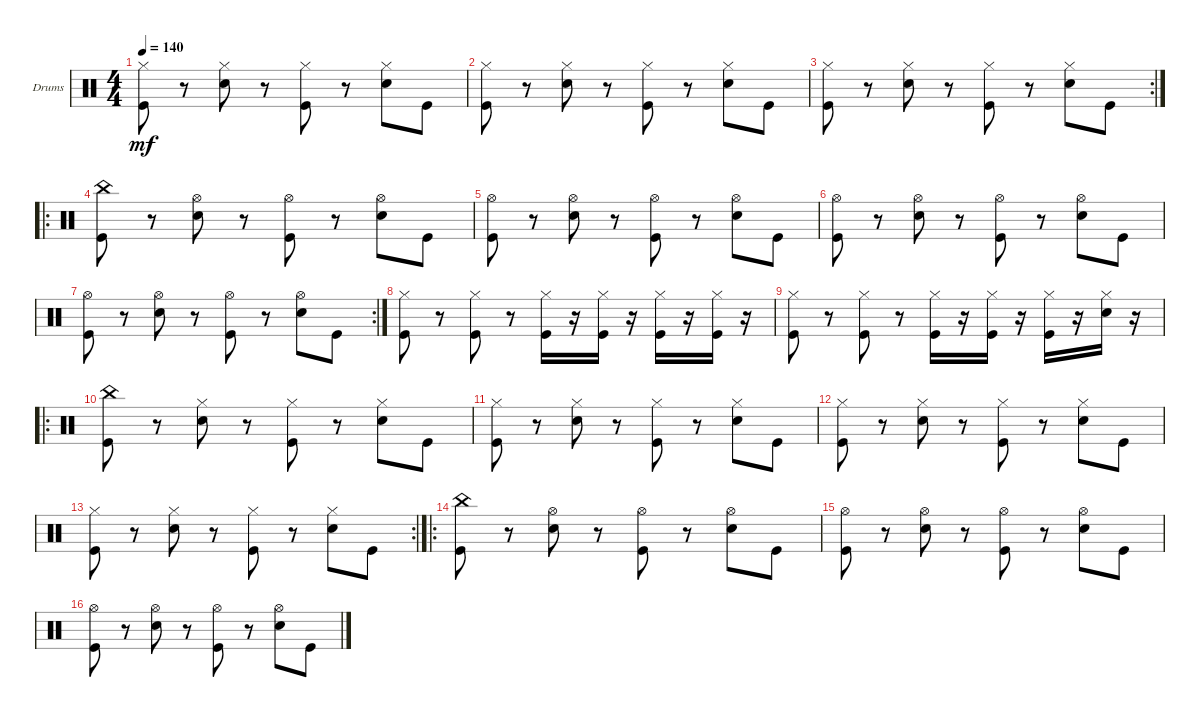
\bracketExtendMode groupsimilarinstruments
\firstSystemTrackNameOrientation horizontal
\otherSystemsTrackNameOrientation horizontal
\track ("Drums" "Drums") {instrument percussion}
\staff {score}
\articulation defaults
\ts (4 4)
\tempo 140
\clef neutral
\ks c
("Kick (hit)" "Hi-Hat (closed)").8{dy mf} r.8 ("Snare (hit) 2" "Hi-Hat (closed)").8 r.8 ("Kick (hit)" "Hi-Hat (closed)").8 r.8 ("Snare (hit) 2" "Hi-Hat (closed)").8 "Kick (hit)".8 |
("Kick (hit)" "Hi-Hat (closed)").8 r.8 ("Snare (hit) 2" "Hi-Hat (closed)").8 r.8 ("Kick (hit)" "Hi-Hat (closed)").8 r.8 ("Snare (hit) 2" "Hi-Hat (closed)").8 "Kick (hit)".8 |
\rc 2
("Kick (hit)" "Hi-Hat (closed)").8 r.8 ("Snare (hit) 2" "Hi-Hat (closed)").8 r.8 ("Kick (hit)" "Hi-Hat (closed)").8 r.8 ("Snare (hit) 2" "Hi-Hat (closed)").8 "Kick (hit)".8 |
\ro
("Kick (hit)" "China (hit)").8 r.8 ("Snare (hit) 2" "Hi-Hat (open)").8 r.8 ("Kick (hit)" "Hi-Hat (open)").8 r.8 ("Snare (hit) 2" "Hi-Hat (open)").8 "Kick (hit)".8 |
("Kick (hit)" "Hi-Hat (open)").8 r.8 ("Snare (hit) 2" "Hi-Hat (open)").8 r.8 ("Kick (hit)" "Hi-Hat (open)").8 r.8 ("Snare (hit) 2" "Hi-Hat (open)").8 "Kick (hit)".8 |
("Kick (hit)" "Hi-Hat (open)").8 r.8 ("Snare (hit) 2" "Hi-Hat (open)").8 r.8 ("Kick (hit)" "Hi-Hat (open)").8 r.8 ("Snare (hit) 2" "Hi-Hat (open)").8 "Kick (hit)".8 |
\rc 2
("Kick (hit)" "Hi-Hat (open)").8 r.8 ("Snare (hit) 2" "Hi-Hat (open)").8 r.8 ("Kick (hit)" "Hi-Hat (open)").8 r.8 ("Snare (hit) 2" "Hi-Hat (open)").8 "Kick (hit)".8 |
("Kick (hit)" "Hi-Hat (closed)").8 r.8 ("Kick (hit)" "Hi-Hat (closed)").8 r.8 ("Kick (hit)" "Hi-Hat (closed)").16 r.16 ("Kick (hit)" "Hi-Hat (closed)").16 r.16 ("Kick (hit)" "Hi-Hat (closed)").16 r.16 ("Kick (hit)" "Hi-Hat (closed)").16 r.16 |
("Kick (hit)" "Hi-Hat (closed)").8 r.8 ("Kick (hit)" "Hi-Hat (closed)").8 r.8 ("Kick (hit)" "Hi-Hat (closed)").16 r.16 ("Kick (hit)" "Hi-Hat (closed)").16 r.16 ("Kick (hit)" "Hi-Hat (closed)").16 r.16 ("Hi-Hat (closed)" "Snare (hit) 2").16 r.16 |
\ro
("Kick (hit)" "China (hit)").8 r.8 ("Snare (hit) 2" "Hi-Hat (closed)").8 r.8 ("Kick (hit)" "Hi-Hat (closed)").8 r.8 ("Snare (hit) 2" "Hi-Hat (closed)").8 "Kick (hit)".8 |
("Kick (hit)" "Hi-Hat (closed)").8 r.8 ("Snare (hit) 2" "Hi-Hat (closed)").8 r.8 ("Kick (hit)" "Hi-Hat (closed)").8 r.8 ("Snare (hit) 2" "Hi-Hat (closed)").8 "Kick (hit)".8 |
("Kick (hit)" "Hi-Hat (closed)").8 r.8 ("Snare (hit) 2" "Hi-Hat (closed)").8 r.8 ("Kick (hit)" "Hi-Hat (closed)").8 r.8 ("Snare (hit) 2" "Hi-Hat (closed)").8 "Kick (hit)".8 |
\rc 2
("Kick (hit)" "Hi-Hat (closed)").8 r.8 ("Snare (hit) 2" "Hi-Hat (closed)").8 r.8 ("Kick (hit)" "Hi-Hat (closed)").8 r.8 ("Snare (hit) 2" "Hi-Hat (closed)").8 "Kick (hit)".8 |
\ro
("Kick (hit)" "China (hit)").8 r.8 ("Snare (hit) 2" "Hi-Hat (open)").8 r.8 ("Kick (hit)" "Hi-Hat (open)").8 r.8 ("Snare (hit) 2" "Hi-Hat (open)").8 "Kick (hit)".8 |
("Kick (hit)" "Hi-Hat (open)").8 r.8 ("Snare (hit) 2" "Hi-Hat (open)").8 r.8 ("Kick (hit)" "Hi-Hat (open)").8 r.8 ("Snare (hit) 2" "Hi-Hat (open)").8 "Kick (hit)".8 |
("Kick (hit)" "Hi-Hat (open)").8 r.8 ("Snare (hit) 2" "Hi-Hat (open)").8 r.8 ("Kick (hit)" "Hi-Hat (open)").8 r.8 ("Snare (hit) 2" "Hi-Hat (open)").8 "Kick (hit)".8
